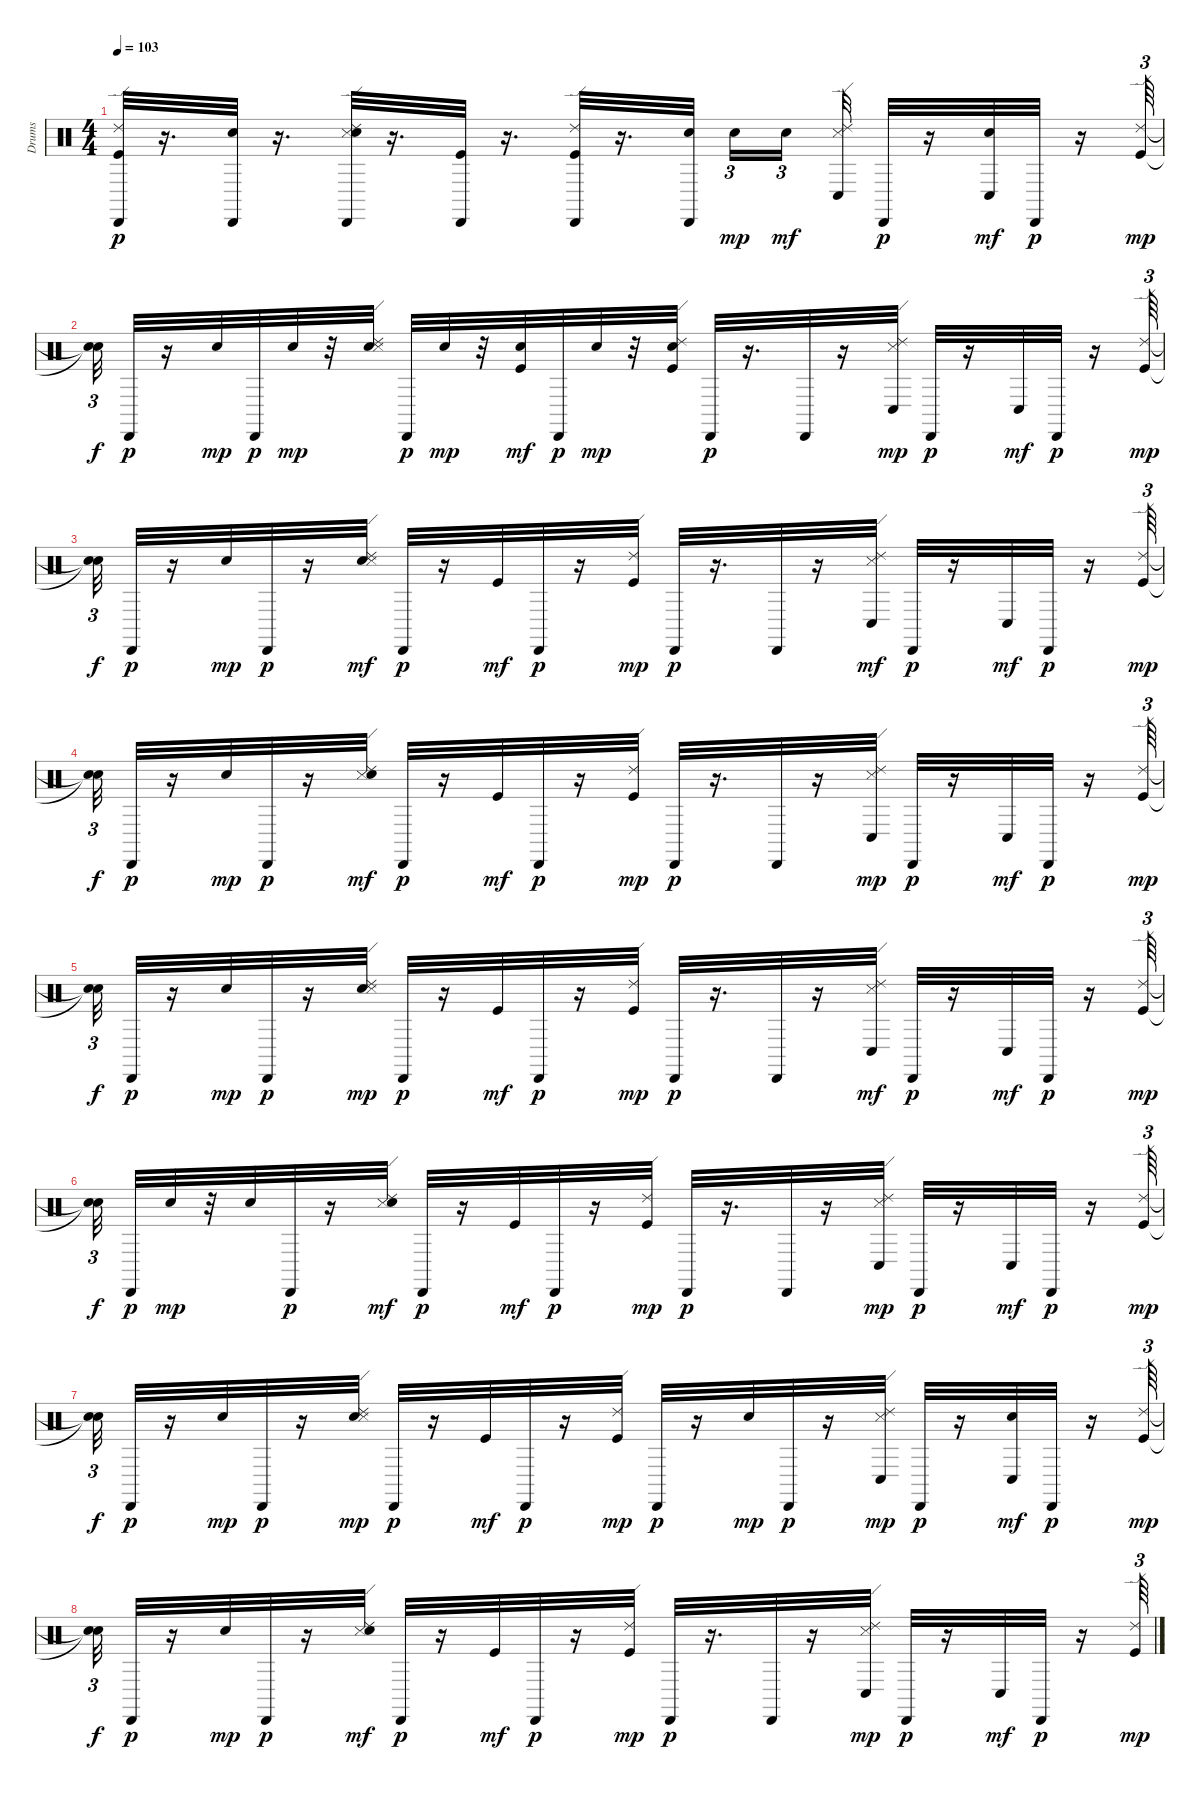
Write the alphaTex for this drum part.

\track ("Drums" "Drums") {instrument percussion}
\staff {score}
\articulation defaults
\ts (4 4)
\tempo 103
\clef neutral
\ks c
("Ride (edge) 2" "Kick (hit)" "Cabasa (hit)").32{dy p} r.16{d} ("Snare (hit) 2" "Cabasa (hit)").32 r.16{d} ("Snare (side stick) 3" "Ride (edge) 2" "Snare (hit) 2" "Cabasa (hit)").32 r.16{d} ("Kick (hit)" "Cabasa (hit)").32 r.16{d} ("Kick (hit)" "Ride (edge) 2" "Cabasa (hit)").32 r.16{d} ("Snare (hit) 2" "Cabasa (hit)").32 "Snare (hit) 2".16{tu (3 2) dy mp} "Snare (hit) 2".16{tu (3 2) dy mf} ("Ride (edge) 2" "Conga low (hit)" "Snare (side stick) 3").32 "Cabasa (hit)".32{dy p} r.16 ("Conga low (hit)" "Snare (hit) 2").32{dy mf} "Cabasa (hit)".32{dy p} r.16 ("Kick (hit)" "Ride (edge) 2").64{tu (3 2) dy mp} |
("Snare (hit)"{t} "Snare (hit)"{t}).32{tu (3 2) dy f} "Cabasa (hit)".32{dy p} r.16 "Snare (hit) 2".32{dy mp} "Cabasa (hit)".32{dy p} "Snare (hit) 2".32{dy mp} r.32 ("Snare (hit) 2" "Snare (side stick) 3" "Ride (edge) 2").32 "Cabasa (hit)".32{dy p} "Snare (hit) 2".32{dy mp} r.32 ("Snare (hit) 2" "Kick (hit)").32{dy mf} "Cabasa (hit)".32{dy p} "Snare (hit) 2".32{dy mp} r.32 ("Kick (hit)" "Snare (hit) 2" "Ride (edge) 2").32 "Cabasa (hit)".32{dy p} r.16{d} "Cabasa (hit)".32 r.16 ("Conga low (hit)" "Ride (edge) 2" "Snare (side stick) 3").32{dy mp} "Cabasa (hit)".32{dy p} r.16 "Conga low (hit)".32{dy mf} "Cabasa (hit)".32{dy p} r.16 ("Ride (edge) 2" "Kick (hit)").64{tu (3 2) dy mp} |
("Snare (hit)"{t} "Snare (hit)"{t}).32{tu (3 2) dy f} "Cabasa (hit)".32{dy p} r.16 "Snare (hit) 2".32{dy mp} "Cabasa (hit)".32{dy p} r.16 ("Ride (edge) 2" "Snare (hit) 2" "Snare (side stick) 3").32{dy mf} "Cabasa (hit)".32{dy p} r.16 "Kick (hit)".32{dy mf} "Cabasa (hit)".32{dy p} r.16 ("Kick (hit)" "Ride (edge) 2").32{dy mp} "Cabasa (hit)".32{dy p} r.16{d} "Cabasa (hit)".32 r.16 ("Snare (side stick) 3" "Ride (edge) 2" "Conga low (hit)").32{dy mf} "Cabasa (hit)".32{dy p} r.16 "Conga low (hit)".32{dy mf} "Cabasa (hit)".32{dy p} r.16 ("Kick (hit)" "Ride (edge) 2").64{tu (3 2) dy mp} |
("Snare (hit)"{t} "Snare (hit)"{t}).32{tu (3 2) dy f} "Cabasa (hit)".32{dy p} r.16 "Snare (hit) 2".32{dy mp} "Cabasa (hit)".32{dy p} r.16 ("Snare (side stick) 3" "Ride (edge) 2" "Snare (hit) 2").32{dy mf} "Cabasa (hit)".32{dy p} r.16 "Kick (hit)".32{dy mf} "Cabasa (hit)".32{dy p} r.16 ("Ride (edge) 2" "Kick (hit)").32{dy mp} "Cabasa (hit)".32{dy p} r.16{d} "Cabasa (hit)".32 r.16 ("Conga low (hit)" "Ride (edge) 2" "Snare (side stick) 3").32{dy mp} "Cabasa (hit)".32{dy p} r.16 "Conga low (hit)".32{dy mf} "Cabasa (hit)".32{dy p} r.16 ("Ride (edge) 2" "Kick (hit)").64{tu (3 2) dy mp} |
("Snare (hit)"{t} "Snare (hit)"{t}).32{tu (3 2) dy f} "Cabasa (hit)".32{dy p} r.16 "Snare (hit) 2".32{dy mp} "Cabasa (hit)".32{dy p} r.16 ("Snare (hit) 2" "Snare (side stick) 3" "Ride (edge) 2").32{dy mp} "Cabasa (hit)".32{dy p} r.16 "Kick (hit)".32{dy mf} "Cabasa (hit)".32{dy p} r.16 ("Ride (edge) 2" "Kick (hit)").32{dy mp} "Cabasa (hit)".32{dy p} r.16{d} "Cabasa (hit)".32 r.16 ("Ride (edge) 2" "Conga low (hit)" "Snare (side stick) 3").32{dy mf} "Cabasa (hit)".32{dy p} r.16 "Conga low (hit)".32{dy mf} "Cabasa (hit)".32{dy p} r.16 ("Kick (hit)" "Ride (edge) 2").64{tu (3 2) dy mp} |
("Snare (hit)"{t} "Snare (hit)"{t}).32{tu (3 2) dy f} "Cabasa (hit)".32{dy p} "Snare (hit) 2".32{dy mp} r.32 "Snare (hit) 2".32 "Cabasa (hit)".32{dy p} r.16 ("Snare (side stick) 3" "Ride (edge) 2" "Snare (hit) 2").32{dy mf} "Cabasa (hit)".32{dy p} r.16 "Kick (hit)".32{dy mf} "Cabasa (hit)".32{dy p} r.16 ("Ride (edge) 2" "Kick (hit)").32{dy mp} "Cabasa (hit)".32{dy p} r.16{d} "Cabasa (hit)".32 r.16 ("Conga low (hit)" "Snare (side stick) 3" "Ride (edge) 2").32{dy mp} "Cabasa (hit)".32{dy p} r.16 "Conga low (hit)".32{dy mf} "Cabasa (hit)".32{dy p} r.16 ("Ride (edge) 2" "Kick (hit)").64{tu (3 2) dy mp} |
("Snare (hit)"{t} "Snare (hit)"{t}).32{tu (3 2) dy f} "Cabasa (hit)".32{dy p} r.16 "Snare (hit) 2".32{dy mp} "Cabasa (hit)".32{dy p} r.16 ("Snare (hit) 2" "Snare (side stick) 3" "Ride (edge) 2").32{dy mp} "Cabasa (hit)".32{dy p} r.16 "Kick (hit)".32{dy mf} "Cabasa (hit)".32{dy p} r.16 ("Ride (edge) 2" "Kick (hit)").32{dy mp} "Cabasa (hit)".32{dy p} r.16 "Snare (hit) 2".32{dy mp} "Cabasa (hit)".32{dy p} r.16 ("Snare (side stick) 3" "Conga low (hit)" "Ride (edge) 2").32{dy mp} "Cabasa (hit)".32{dy p} r.16 ("Snare (hit) 2" "Conga low (hit)").32{dy mf} "Cabasa (hit)".32{dy p} r.16 ("Kick (hit)" "Ride (edge) 2").64{tu (3 2) dy mp} |
("Snare (hit)"{t} "Snare (hit)"{t}).32{tu (3 2) dy f} "Cabasa (hit)".32{dy p} r.16 "Snare (hit) 2".32{dy mp} "Cabasa (hit)".32{dy p} r.16 ("Snare (side stick) 3" "Ride (edge) 2" "Snare (hit) 2").32{dy mf} "Cabasa (hit)".32{dy p} r.16 "Kick (hit)".32{dy mf} "Cabasa (hit)".32{dy p} r.16 ("Kick (hit)" "Ride (edge) 2").32{dy mp} "Cabasa (hit)".32{dy p} r.16{d} "Cabasa (hit)".32 r.16 ("Conga low (hit)" "Ride (edge) 2" "Snare (side stick) 3").32{dy mp} "Cabasa (hit)".32{dy p} r.16 "Conga low (hit)".32{dy mf} "Cabasa (hit)".32{dy p} r.16 ("Kick (hit)" "Ride (edge) 2").64{tu (3 2) dy mp}
